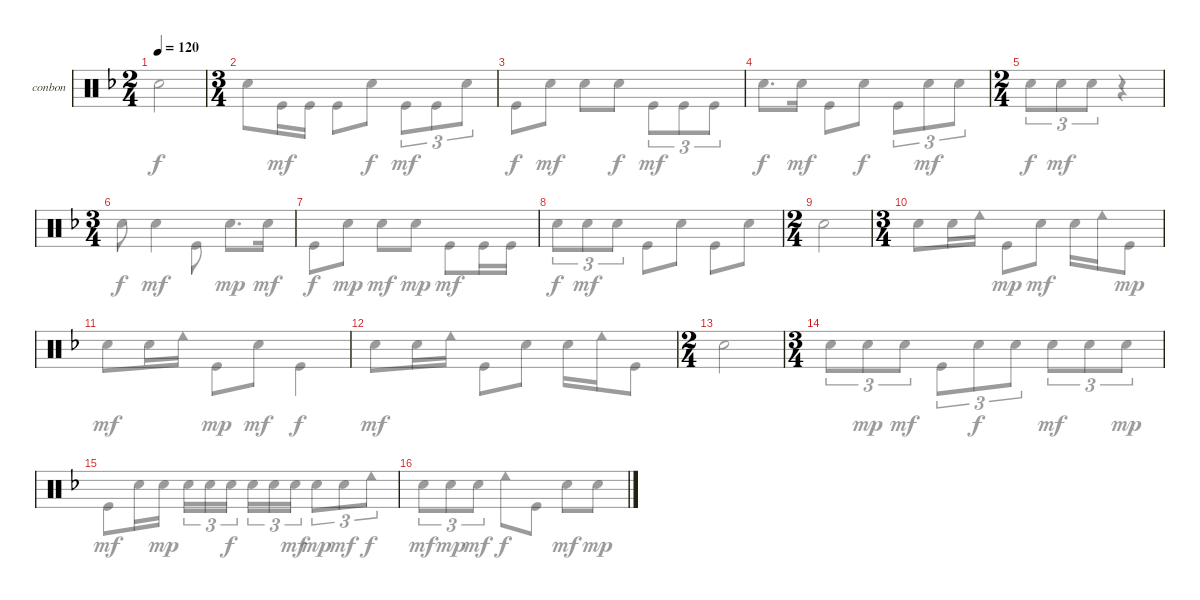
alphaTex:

\defaultSystemsLayout 4
\bracketExtendMode groupsimilarinstruments
\firstSystemTrackNameOrientation horizontal
\otherSystemsTrackNameOrientation horizontal
\track ("Bongos N Congas" "conbon") {instrument percussion}
\staff {score}
\articulation defaults
\voice
\ts (2 4)
\tempo 120
\clef neutral
\ks f
|
\ts (3 4)
|
|
|
\ts (2 4)
|
\ts (3 4)
|
|
|
\ts (2 4)
|
\ts (3 4)
|
|
|
\ts (2 4)
|
\ts (3 4)
|
|
\voice
\clef neutral
\ks f "Snare (hit) 2".2{dy f}
|
"Snare (hit) 2".8 "Kick (hit)".16{dy mf} "Kick (hit)".16 "Kick (hit)".8 "Snare (hit) 2".8{dy f} "Kick (hit)".8{tu (3 2) dy mf} "Kick (hit)".8{tu (3 2)} "Snare (hit) 2".8{tu (3 2)} |
"Kick (hit)".8{dy f} "Snare (hit) 2".8{dy mf} "Snare (hit) 2".8 "Snare (hit) 2".8{dy f} "Kick (hit)".8{tu (3 2) dy mf} "Kick (hit)".8{tu (3 2)} "Kick (hit)".8{tu (3 2)} |
"Snare (hit) 2".8{d dy f} "Snare (hit) 2".16{dy mf} "Kick (hit)".8 "Snare (hit) 2".8{dy f} "Kick (hit)".8{tu (3 2)} "Snare (hit) 2".8{tu (3 2) dy mf} "Snare (hit) 2".8{tu (3 2)} |
"Snare (hit) 2".8{tu (3 2) dy f} "Snare (hit) 2".8{tu (3 2) dy mf} "Snare (hit) 2".8{tu (3 2)} r.4 |
"Snare (hit) 2".8{dy f} "Snare (hit) 2".4{dy mf} "Kick (hit)".8 "Snare (hit) 2".8{d dy mp} "Snare (hit) 2".16{dy mf} |
"Kick (hit)".8{dy f} "Snare (hit) 2".8{dy mp} "Snare (hit) 2".8{dy mf} "Snare (hit) 2".8{dy mp} "Kick (hit)".8{dy mf} "Kick (hit)".16 "Kick (hit)".16 |
"Snare (hit) 2".8{tu (3 2) dy f} "Snare (hit) 2".8{tu (3 2) dy mf} "Snare (hit) 2".8{tu (3 2)} "Kick (hit)".8 "Snare (hit) 2".8 "Kick (hit)".8 "Snare (hit) 2".8 |
"Snare (hit) 2".2 |
"Snare (hit) 2".8 "Snare (hit) 2".16 "Cowbell low (hit)".16 "Kick (hit)".8{dy mp} "Snare (hit) 2".8{dy mf} "Snare (hit) 2".16 "Cowbell low (hit)".16 "Kick (hit)".8{dy mp} |
"Snare (hit) 2".8{dy mf} "Snare (hit) 2".16 "Cowbell low (hit)".16 "Kick (hit)".8{dy mp} "Snare (hit) 2".8{dy mf} "Kick (hit)".4{dy f} |
"Snare (hit) 2".8{dy mf} "Snare (hit) 2".16 "Cowbell low (hit)".16 "Kick (hit)".8 "Snare (hit) 2".8 "Snare (hit) 2".16 "Cowbell low (hit)".16 "Kick (hit)".8 |
"Snare (hit) 2".2 |
"Snare (hit) 2".8{tu (3 2)} "Snare (hit) 2".8{tu (3 2) dy mp} "Snare (hit) 2".8{tu (3 2) dy mf} "Kick (hit)".8{tu (3 2)} "Snare (hit) 2".8{tu (3 2) dy f} "Snare (hit) 2".8{tu (3 2)} "Snare (hit) 2".8{tu (3 2) dy mf} "Snare (hit) 2".8{tu (3 2)} "Snare (hit) 2".8{tu (3 2) dy mp} |
"Kick (hit)".8{dy mf} "Snare (hit) 2".16 "Snare (hit) 2".16{dy mp} "Snare (hit) 2".16{tu (3 2)} "Snare (hit) 2".16{tu (3 2)} "Snare (hit) 2".16{tu (3 2) dy f} "Snare (hit) 2".16{tu (3 2)} "Snare (hit) 2".16{tu (3 2)} "Snare (hit) 2".16{tu (3 2) dy mf} "Snare (hit) 2".8{tu (3 2) dy mp} "Snare (hit) 2".8{tu (3 2) dy mf} "Cowbell low (hit)".8{tu (3 2) dy f} |
"Snare (hit) 2".8{tu (3 2) dy mf} "Snare (hit) 2".8{tu (3 2) dy mp} "Snare (hit) 2".8{tu (3 2) dy mf} "Cowbell low (hit)".8{dy f} "Kick (hit)".8 "Snare (hit) 2".8{dy mf} "Snare (hit) 2".8{dy mp}
